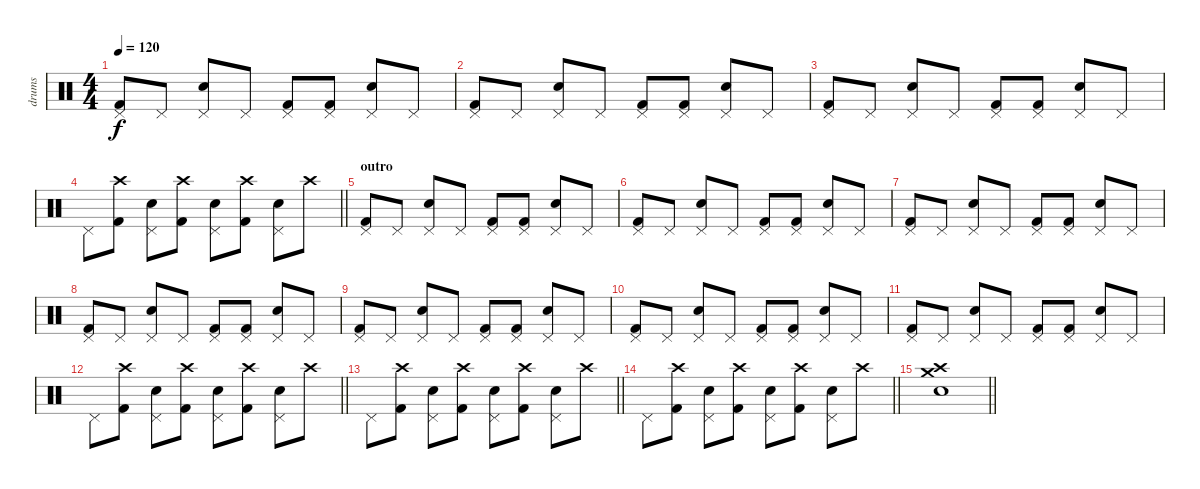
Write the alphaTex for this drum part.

\track ("drums" "drums") {instrument percussion}
\staff {score}
\articulation defaults
\ts (4 4)
\tempo 120
\clef neutral
\ks c
("Kick (hit) 2" "Pedal Hi-Hat (hit)").8{dy f} "Pedal Hi-Hat (hit)".8 ("Electric Snare (hit)" "Pedal Hi-Hat (hit)").8 "Pedal Hi-Hat (hit)".8 ("Kick (hit) 2" "Pedal Hi-Hat (hit)").8 ("Kick (hit) 2" "Pedal Hi-Hat (hit)").8 ("Electric Snare (hit)" "Pedal Hi-Hat (hit)").8 "Pedal Hi-Hat (hit)".8 |
("Kick (hit) 2" "Pedal Hi-Hat (hit)").8 "Pedal Hi-Hat (hit)".8 ("Electric Snare (hit)" "Pedal Hi-Hat (hit)").8 "Pedal Hi-Hat (hit)".8 ("Kick (hit) 2" "Pedal Hi-Hat (hit)").8 ("Kick (hit) 2" "Pedal Hi-Hat (hit)").8 ("Electric Snare (hit)" "Pedal Hi-Hat (hit)").8 "Pedal Hi-Hat (hit)".8 |
("Kick (hit) 2" "Pedal Hi-Hat (hit)").8 "Pedal Hi-Hat (hit)".8 ("Electric Snare (hit)" "Pedal Hi-Hat (hit)").8 "Pedal Hi-Hat (hit)".8 ("Kick (hit) 2" "Pedal Hi-Hat (hit)").8 ("Kick (hit) 2" "Pedal Hi-Hat (hit)").8 ("Electric Snare (hit)" "Pedal Hi-Hat (hit)").8 "Pedal Hi-Hat (hit)".8 |
\barLineRight lightlight "Pedal Hi-Hat (hit)".8
("Kick (hit) 2" "Crash high (hit)").8 ("Electric Snare (hit)" "Pedal Hi-Hat (hit)").8 ("Kick (hit) 2" "Crash high (hit)").8 ("Electric Snare (hit)" "Pedal Hi-Hat (hit)").8 ("Kick (hit) 2" "Crash high (hit)").8 ("Electric Snare (hit)" "Pedal Hi-Hat (hit)").8 "Crash high (hit)".8 |
\section ("" "outro")
("Kick (hit) 2" "Pedal Hi-Hat (hit)").8 "Pedal Hi-Hat (hit)".8 ("Electric Snare (hit)" "Pedal Hi-Hat (hit)").8 "Pedal Hi-Hat (hit)".8 ("Kick (hit) 2" "Pedal Hi-Hat (hit)").8 ("Kick (hit) 2" "Pedal Hi-Hat (hit)").8 ("Electric Snare (hit)" "Pedal Hi-Hat (hit)").8 "Pedal Hi-Hat (hit)".8 |
("Kick (hit) 2" "Pedal Hi-Hat (hit)").8 "Pedal Hi-Hat (hit)".8 ("Electric Snare (hit)" "Pedal Hi-Hat (hit)").8 "Pedal Hi-Hat (hit)".8 ("Kick (hit) 2" "Pedal Hi-Hat (hit)").8 ("Kick (hit) 2" "Pedal Hi-Hat (hit)").8 ("Electric Snare (hit)" "Pedal Hi-Hat (hit)").8 "Pedal Hi-Hat (hit)".8 |
("Kick (hit) 2" "Pedal Hi-Hat (hit)").8 "Pedal Hi-Hat (hit)".8 ("Electric Snare (hit)" "Pedal Hi-Hat (hit)").8 "Pedal Hi-Hat (hit)".8 ("Kick (hit) 2" "Pedal Hi-Hat (hit)").8 ("Kick (hit) 2" "Pedal Hi-Hat (hit)").8 ("Electric Snare (hit)" "Pedal Hi-Hat (hit)").8 "Pedal Hi-Hat (hit)".8 |
("Kick (hit) 2" "Pedal Hi-Hat (hit)").8 "Pedal Hi-Hat (hit)".8 ("Electric Snare (hit)" "Pedal Hi-Hat (hit)").8 "Pedal Hi-Hat (hit)".8 ("Kick (hit) 2" "Pedal Hi-Hat (hit)").8 ("Kick (hit) 2" "Pedal Hi-Hat (hit)").8 ("Electric Snare (hit)" "Pedal Hi-Hat (hit)").8 "Pedal Hi-Hat (hit)".8 |
("Kick (hit) 2" "Pedal Hi-Hat (hit)").8 "Pedal Hi-Hat (hit)".8 ("Electric Snare (hit)" "Pedal Hi-Hat (hit)").8 "Pedal Hi-Hat (hit)".8 ("Kick (hit) 2" "Pedal Hi-Hat (hit)").8 ("Kick (hit) 2" "Pedal Hi-Hat (hit)").8 ("Electric Snare (hit)" "Pedal Hi-Hat (hit)").8 "Pedal Hi-Hat (hit)".8 |
("Kick (hit) 2" "Pedal Hi-Hat (hit)").8 "Pedal Hi-Hat (hit)".8 ("Electric Snare (hit)" "Pedal Hi-Hat (hit)").8 "Pedal Hi-Hat (hit)".8 ("Kick (hit) 2" "Pedal Hi-Hat (hit)").8 ("Kick (hit) 2" "Pedal Hi-Hat (hit)").8 ("Electric Snare (hit)" "Pedal Hi-Hat (hit)").8 "Pedal Hi-Hat (hit)".8 |
("Kick (hit) 2" "Pedal Hi-Hat (hit)").8 "Pedal Hi-Hat (hit)".8 ("Electric Snare (hit)" "Pedal Hi-Hat (hit)").8 "Pedal Hi-Hat (hit)".8 ("Kick (hit) 2" "Pedal Hi-Hat (hit)").8 ("Kick (hit) 2" "Pedal Hi-Hat (hit)").8 ("Electric Snare (hit)" "Pedal Hi-Hat (hit)").8 "Pedal Hi-Hat (hit)".8 |
\barLineRight lightlight "Pedal Hi-Hat (hit)".8
("Kick (hit) 2" "Crash high (hit)").8 ("Electric Snare (hit)" "Pedal Hi-Hat (hit)").8 ("Kick (hit) 2" "Crash high (hit)").8 ("Electric Snare (hit)" "Pedal Hi-Hat (hit)").8 ("Kick (hit) 2" "Crash high (hit)").8 ("Electric Snare (hit)" "Pedal Hi-Hat (hit)").8 "Crash high (hit)".8 |
\barLineRight lightlight "Pedal Hi-Hat (hit)".8
("Kick (hit) 2" "Crash high (hit)").8 ("Electric Snare (hit)" "Pedal Hi-Hat (hit)").8 ("Kick (hit) 2" "Crash high (hit)").8 ("Electric Snare (hit)" "Pedal Hi-Hat (hit)").8 ("Kick (hit) 2" "Crash high (hit)").8 ("Electric Snare (hit)" "Pedal Hi-Hat (hit)").8 "Crash high (hit)".8 |
\barLineRight lightlight "Pedal Hi-Hat (hit)".8
("Kick (hit) 2" "Crash high (hit)").8 ("Electric Snare (hit)" "Pedal Hi-Hat (hit)").8 ("Kick (hit) 2" "Crash high (hit)").8 ("Electric Snare (hit)" "Pedal Hi-Hat (hit)").8 ("Kick (hit) 2" "Crash high (hit)").8 ("Electric Snare (hit)" "Pedal Hi-Hat (hit)").8 "Crash high (hit)".8 |
\barLineRight lightlight
("Electric Snare (hit)" "Crash medium (hit)" "Crash high (hit)").1
